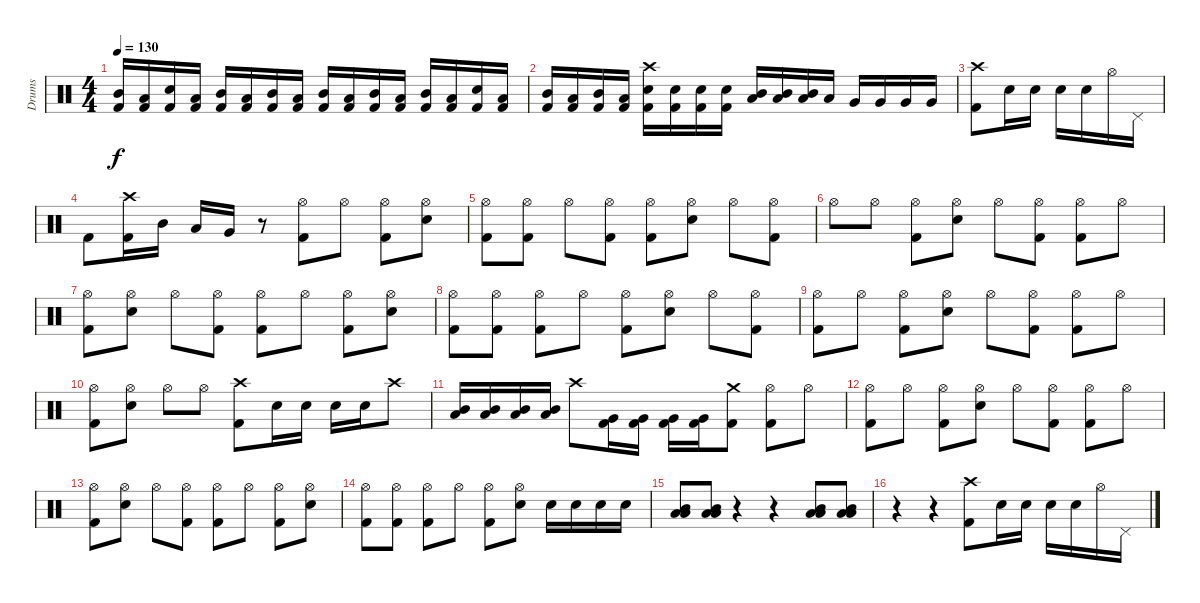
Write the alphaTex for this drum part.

\track ("Drums" "Drums") {instrument percussion}
\staff {score}
\articulation defaults
\ts (4 4)
\tempo 130
\clef neutral
\ks c
("Kick (hit) 2" "Mid Tom (hit)").16{dy f} ("Kick (hit) 2" "Low Tom (hit)").16 ("Kick (hit) 2" "Snare (hit) 2").16 ("Kick (hit) 2" "Low Tom (hit)").16 ("Kick (hit) 2" "Mid Tom (hit)").16 ("Kick (hit) 2" "Low Tom (hit)").16 ("Kick (hit) 2" "Mid Tom (hit)").16 ("Kick (hit) 2" "Low Tom (hit)").16 ("Kick (hit) 2" "Mid Tom (hit)").16 ("Kick (hit) 2" "Low Tom (hit)").16 ("Kick (hit) 2" "Mid Tom (hit)").16 ("Kick (hit) 2" "Low Tom (hit)").16 ("Kick (hit) 2" "Mid Tom (hit)").16 ("Kick (hit) 2" "Low Tom (hit)").16 ("Kick (hit) 2" "Snare (hit) 2").16 ("Kick (hit) 2" "Low Tom (hit)").16 |
("Kick (hit) 2" "Mid Tom (hit)").16 ("Kick (hit) 2" "Low Tom (hit)").16 ("Kick (hit) 2" "Mid Tom (hit)").16 ("Kick (hit) 2" "Low Tom (hit)").16 ("Kick (hit) 2" "Snare (hit) 2" "Crash high (hit)").16 ("Kick (hit) 2" "Snare (hit) 2").16 ("Kick (hit) 2" "Snare (hit) 2").16 ("Kick (hit) 2" "Snare (hit) 2").16 ("Mid Tom (hit)" "Low Tom (hit)").16 ("Mid Tom (hit)" "Low Tom (hit)").16 ("Mid Tom (hit)" "Low Tom (hit)").16 "Low Tom (hit)".16 "Very Low Tom (hit)".16 "Very Low Tom (hit)".16 "Very Low Tom (hit)".16 "Very Low Tom (hit)".16 |
("Crash high (hit)" "Kick (hit) 2").8 "Snare (hit) 2".16 "Snare (hit) 2".16 "Snare (hit) 2".16 "Snare (hit) 2".16 "Hi-Hat (open)".16 "Pedal Hi-Hat (hit)".16 |
"Kick (hit) 2".8 ("Kick (hit) 2" "Crash high (hit)").16 "Mid Tom (hit)".16 "Low Tom (hit)".16 "Very Low Tom (hit)".16 r.8 ("Hi-Hat (open)" "Kick (hit) 2").8 "Hi-Hat (open)".8 ("Hi-Hat (open)" "Kick (hit) 2").8 ("Hi-Hat (open)" "Snare (hit) 2").8 |
("Hi-Hat (open)" "Kick (hit) 2").8 ("Hi-Hat (open)" "Kick (hit) 2").8 "Hi-Hat (open)".8 ("Hi-Hat (open)" "Kick (hit) 2").8 ("Hi-Hat (open)" "Kick (hit) 2").8 ("Hi-Hat (open)" "Snare (hit) 2").8 "Hi-Hat (open)".8 ("Hi-Hat (open)" "Kick (hit) 2").8 |
"Hi-Hat (open)".8 "Hi-Hat (open)".8 ("Hi-Hat (open)" "Kick (hit) 2").8 ("Hi-Hat (open)" "Snare (hit) 2").8 "Hi-Hat (open)".8 ("Hi-Hat (open)" "Kick (hit) 2").8 ("Hi-Hat (open)" "Kick (hit) 2").8 "Hi-Hat (open)".8 |
("Hi-Hat (open)" "Kick (hit) 2").8 ("Hi-Hat (open)" "Snare (hit) 2").8 "Hi-Hat (open)".8 ("Hi-Hat (open)" "Kick (hit) 2").8 ("Hi-Hat (open)" "Kick (hit) 2").8 "Hi-Hat (open)".8 ("Hi-Hat (open)" "Kick (hit) 2").8 ("Hi-Hat (open)" "Snare (hit) 2").8 |
("Hi-Hat (open)" "Kick (hit) 2").8 ("Hi-Hat (open)" "Kick (hit) 2").8 ("Hi-Hat (open)" "Kick (hit) 2").8 "Hi-Hat (open)".8 ("Hi-Hat (open)" "Kick (hit) 2").8 ("Hi-Hat (open)" "Snare (hit) 2").8 "Hi-Hat (open)".8 ("Hi-Hat (open)" "Kick (hit) 2").8 |
("Hi-Hat (open)" "Kick (hit) 2").8 "Hi-Hat (open)".8 ("Hi-Hat (open)" "Kick (hit) 2").8 ("Hi-Hat (open)" "Snare (hit) 2").8 "Hi-Hat (open)".8 ("Hi-Hat (open)" "Kick (hit) 2").8 ("Hi-Hat (open)" "Kick (hit) 2").8 "Hi-Hat (open)".8 |
("Hi-Hat (open)" "Kick (hit) 2").8 ("Hi-Hat (open)" "Snare (hit) 2").8 "Hi-Hat (open)".8 "Hi-Hat (open)".8 ("Crash high (hit)" "Kick (hit) 2").8 "Snare (hit) 2".16 "Snare (hit) 2".16 "Snare (hit) 2".16 "Snare (hit) 2".16 "Crash high (hit)".8 |
("Mid Tom (hit)" "Low Tom (hit)").16 ("Mid Tom (hit)" "Low Tom (hit)").16 ("Mid Tom (hit)" "Low Tom (hit)").16 ("Mid Tom (hit)" "Low Tom (hit)").16 "Crash high (hit)".8 ("Kick (hit) 2" "Very Low Tom (hit)").16 ("Kick (hit) 2" "Very Low Tom (hit)").16 ("Kick (hit) 2" "Very Low Tom (hit)").16 ("Kick (hit) 2" "Very Low Tom (hit)").16 ("Crash medium (hit)" "Kick (hit) 2").8 ("Hi-Hat (open)" "Kick (hit) 2").8 "Hi-Hat (open)".8 |
("Hi-Hat (open)" "Kick (hit) 2").8 "Hi-Hat (open)".8 ("Hi-Hat (open)" "Kick (hit) 2").8 ("Hi-Hat (open)" "Snare (hit) 2").8 "Hi-Hat (open)".8 ("Hi-Hat (open)" "Kick (hit) 2").8 ("Hi-Hat (open)" "Kick (hit) 2").8 "Hi-Hat (open)".8 |
("Hi-Hat (open)" "Kick (hit) 2").8 ("Hi-Hat (open)" "Snare (hit) 2").8 "Hi-Hat (open)".8 ("Hi-Hat (open)" "Kick (hit) 2").8 ("Hi-Hat (open)" "Kick (hit) 2").8 "Hi-Hat (open)".8 ("Hi-Hat (open)" "Kick (hit) 2").8 ("Hi-Hat (open)" "Snare (hit) 2").8 |
("Hi-Hat (open)" "Kick (hit) 2").8 ("Hi-Hat (open)" "Kick (hit) 2").8 ("Hi-Hat (open)" "Kick (hit) 2").8 "Hi-Hat (open)".8 ("Hi-Hat (open)" "Kick (hit) 2").8 ("Hi-Hat (open)" "Snare (hit) 2").8 "Snare (hit) 2".16 "Snare (hit) 2".16 "Snare (hit) 2".16 "Snare (hit) 2".16 |
("Low Tom (hit)" "Low Tom (hit)" "Mid Tom (hit)").8 ("Low Tom (hit)" "Low Tom (hit)" "Mid Tom (hit)").8 r.4 r.4 ("Low Tom (hit)" "Low Tom (hit)" "Mid Tom (hit)").8 ("Low Tom (hit)" "Low Tom (hit)" "Mid Tom (hit)").8 |
r.4 r.4 ("Crash high (hit)" "Kick (hit) 2").8 "Snare (hit) 2".16 "Snare (hit) 2".16 "Snare (hit) 2".16 "Snare (hit) 2".16 "Hi-Hat (open)".16 "Pedal Hi-Hat (hit)".16
